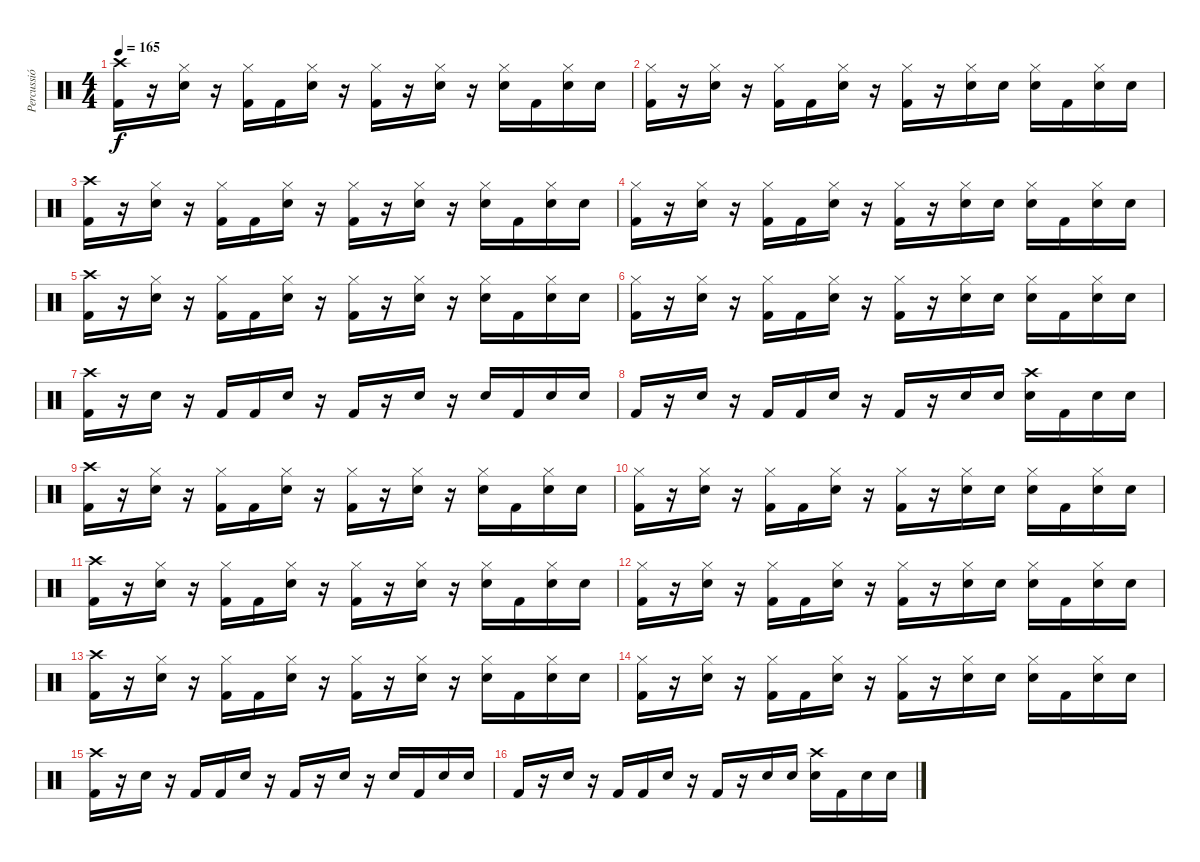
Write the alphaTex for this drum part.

\track ("Percussió" "Percussió") {instrument percussion}
\staff {score}
\articulation defaults
\ts (4 4)
\tempo 165
\clef neutral
\ks c
("Crash high (hit)" "Kick (hit) 2").16{dy f} r.16 ("Hi-Hat (closed)" "Electric Snare (hit)").16 r.16 ("Hi-Hat (closed)" "Kick (hit) 2").16 "Kick (hit) 2".16 ("Hi-Hat (closed)" "Electric Snare (hit)").16 r.16 ("Hi-Hat (closed)" "Kick (hit) 2").16 r.16 ("Hi-Hat (closed)" "Electric Snare (hit)").16 r.16 ("Hi-Hat (closed)" "Electric Snare (hit)").16 "Kick (hit) 2".16 ("Hi-Hat (closed)" "Electric Snare (hit)").16 "Electric Snare (hit)".16 |
("Hi-Hat (closed)" "Kick (hit) 2").16 r.16 ("Hi-Hat (closed)" "Electric Snare (hit)").16 r.16 ("Hi-Hat (closed)" "Kick (hit) 2").16 "Kick (hit) 2".16 ("Hi-Hat (closed)" "Electric Snare (hit)").16 r.16 ("Hi-Hat (closed)" "Kick (hit) 2").16 r.16 ("Hi-Hat (closed)" "Electric Snare (hit)").16 "Electric Snare (hit)".16 ("Hi-Hat (closed)" "Electric Snare (hit)").16 "Kick (hit) 2".16 ("Hi-Hat (closed)" "Electric Snare (hit)").16 "Electric Snare (hit)".16 |
("Crash high (hit)" "Kick (hit) 2").16 r.16 ("Hi-Hat (closed)" "Electric Snare (hit)").16 r.16 ("Hi-Hat (closed)" "Kick (hit) 2").16 "Kick (hit) 2".16 ("Hi-Hat (closed)" "Electric Snare (hit)").16 r.16 ("Hi-Hat (closed)" "Kick (hit) 2").16 r.16 ("Hi-Hat (closed)" "Electric Snare (hit)").16 r.16 ("Hi-Hat (closed)" "Electric Snare (hit)").16 "Kick (hit) 2".16 ("Hi-Hat (closed)" "Electric Snare (hit)").16 "Electric Snare (hit)".16 |
("Hi-Hat (closed)" "Kick (hit) 2").16 r.16 ("Hi-Hat (closed)" "Electric Snare (hit)").16 r.16 ("Hi-Hat (closed)" "Kick (hit) 2").16 "Kick (hit) 2".16 ("Hi-Hat (closed)" "Electric Snare (hit)").16 r.16 ("Hi-Hat (closed)" "Kick (hit) 2").16 r.16 ("Hi-Hat (closed)" "Electric Snare (hit)").16 "Electric Snare (hit)".16 ("Hi-Hat (closed)" "Electric Snare (hit)").16 "Kick (hit) 2".16 ("Hi-Hat (closed)" "Electric Snare (hit)").16 "Electric Snare (hit)".16 |
("Crash high (hit)" "Kick (hit) 2").16 r.16 ("Hi-Hat (closed)" "Electric Snare (hit)").16 r.16 ("Hi-Hat (closed)" "Kick (hit) 2").16 "Kick (hit) 2".16 ("Hi-Hat (closed)" "Electric Snare (hit)").16 r.16 ("Hi-Hat (closed)" "Kick (hit) 2").16 r.16 ("Hi-Hat (closed)" "Electric Snare (hit)").16 r.16 ("Hi-Hat (closed)" "Electric Snare (hit)").16 "Kick (hit) 2".16 ("Hi-Hat (closed)" "Electric Snare (hit)").16 "Electric Snare (hit)".16 |
("Hi-Hat (closed)" "Kick (hit) 2").16 r.16 ("Hi-Hat (closed)" "Electric Snare (hit)").16 r.16 ("Hi-Hat (closed)" "Kick (hit) 2").16 "Kick (hit) 2".16 ("Hi-Hat (closed)" "Electric Snare (hit)").16 r.16 ("Hi-Hat (closed)" "Kick (hit) 2").16 r.16 ("Hi-Hat (closed)" "Electric Snare (hit)").16 "Electric Snare (hit)".16 ("Hi-Hat (closed)" "Electric Snare (hit)").16 "Kick (hit) 2".16 ("Hi-Hat (closed)" "Electric Snare (hit)").16 "Electric Snare (hit)".16 |
("Crash high (hit)" "Kick (hit) 2").16 r.16 "Electric Snare (hit)".16 r.16 "Kick (hit) 2".16 "Kick (hit) 2".16 "Electric Snare (hit)".16 r.16 "Kick (hit) 2".16 r.16 "Electric Snare (hit)".16 r.16 "Electric Snare (hit)".16 "Kick (hit) 2".16 "Electric Snare (hit)".16 "Electric Snare (hit)".16 |
"Kick (hit) 2".16 r.16 "Electric Snare (hit)".16 r.16 "Kick (hit) 2".16 "Kick (hit) 2".16 "Electric Snare (hit)".16 r.16 "Kick (hit) 2".16 r.16 "Electric Snare (hit)".16 "Electric Snare (hit)".16 ("Crash high (hit)" "Electric Snare (hit)").16 "Kick (hit) 2".16 "Electric Snare (hit)".16 "Electric Snare (hit)".16 |
("Crash high (hit)" "Kick (hit) 2").16 r.16 ("Hi-Hat (closed)" "Electric Snare (hit)").16 r.16 ("Hi-Hat (closed)" "Kick (hit) 2").16 "Kick (hit) 2".16 ("Hi-Hat (closed)" "Electric Snare (hit)").16 r.16 ("Hi-Hat (closed)" "Kick (hit) 2").16 r.16 ("Hi-Hat (closed)" "Electric Snare (hit)").16 r.16 ("Hi-Hat (closed)" "Electric Snare (hit)").16 "Kick (hit) 2".16 ("Hi-Hat (closed)" "Electric Snare (hit)").16 "Electric Snare (hit)".16 |
("Hi-Hat (closed)" "Kick (hit) 2").16 r.16 ("Hi-Hat (closed)" "Electric Snare (hit)").16 r.16 ("Hi-Hat (closed)" "Kick (hit) 2").16 "Kick (hit) 2".16 ("Hi-Hat (closed)" "Electric Snare (hit)").16 r.16 ("Hi-Hat (closed)" "Kick (hit) 2").16 r.16 ("Hi-Hat (closed)" "Electric Snare (hit)").16 "Electric Snare (hit)".16 ("Hi-Hat (closed)" "Electric Snare (hit)").16 "Kick (hit) 2".16 ("Hi-Hat (closed)" "Electric Snare (hit)").16 "Electric Snare (hit)".16 |
("Crash high (hit)" "Kick (hit) 2").16 r.16 ("Hi-Hat (closed)" "Electric Snare (hit)").16 r.16 ("Hi-Hat (closed)" "Kick (hit) 2").16 "Kick (hit) 2".16 ("Hi-Hat (closed)" "Electric Snare (hit)").16 r.16 ("Hi-Hat (closed)" "Kick (hit) 2").16 r.16 ("Hi-Hat (closed)" "Electric Snare (hit)").16 r.16 ("Hi-Hat (closed)" "Electric Snare (hit)").16 "Kick (hit) 2".16 ("Hi-Hat (closed)" "Electric Snare (hit)").16 "Electric Snare (hit)".16 |
("Hi-Hat (closed)" "Kick (hit) 2").16 r.16 ("Hi-Hat (closed)" "Electric Snare (hit)").16 r.16 ("Hi-Hat (closed)" "Kick (hit) 2").16 "Kick (hit) 2".16 ("Hi-Hat (closed)" "Electric Snare (hit)").16 r.16 ("Hi-Hat (closed)" "Kick (hit) 2").16 r.16 ("Hi-Hat (closed)" "Electric Snare (hit)").16 "Electric Snare (hit)".16 ("Hi-Hat (closed)" "Electric Snare (hit)").16 "Kick (hit) 2".16 ("Hi-Hat (closed)" "Electric Snare (hit)").16 "Electric Snare (hit)".16 |
("Crash high (hit)" "Kick (hit) 2").16 r.16 ("Hi-Hat (closed)" "Electric Snare (hit)").16 r.16 ("Hi-Hat (closed)" "Kick (hit) 2").16 "Kick (hit) 2".16 ("Hi-Hat (closed)" "Electric Snare (hit)").16 r.16 ("Hi-Hat (closed)" "Kick (hit) 2").16 r.16 ("Hi-Hat (closed)" "Electric Snare (hit)").16 r.16 ("Hi-Hat (closed)" "Electric Snare (hit)").16 "Kick (hit) 2".16 ("Hi-Hat (closed)" "Electric Snare (hit)").16 "Electric Snare (hit)".16 |
("Hi-Hat (closed)" "Kick (hit) 2").16 r.16 ("Hi-Hat (closed)" "Electric Snare (hit)").16 r.16 ("Hi-Hat (closed)" "Kick (hit) 2").16 "Kick (hit) 2".16 ("Hi-Hat (closed)" "Electric Snare (hit)").16 r.16 ("Hi-Hat (closed)" "Kick (hit) 2").16 r.16 ("Hi-Hat (closed)" "Electric Snare (hit)").16 "Electric Snare (hit)".16 ("Hi-Hat (closed)" "Electric Snare (hit)").16 "Kick (hit) 2".16 ("Hi-Hat (closed)" "Electric Snare (hit)").16 "Electric Snare (hit)".16 |
("Crash high (hit)" "Kick (hit) 2").16 r.16 "Electric Snare (hit)".16 r.16 "Kick (hit) 2".16 "Kick (hit) 2".16 "Electric Snare (hit)".16 r.16 "Kick (hit) 2".16 r.16 "Electric Snare (hit)".16 r.16 "Electric Snare (hit)".16 "Kick (hit) 2".16 "Electric Snare (hit)".16 "Electric Snare (hit)".16 |
"Kick (hit) 2".16 r.16 "Electric Snare (hit)".16 r.16 "Kick (hit) 2".16 "Kick (hit) 2".16 "Electric Snare (hit)".16 r.16 "Kick (hit) 2".16 r.16 "Electric Snare (hit)".16 "Electric Snare (hit)".16 ("Crash high (hit)" "Electric Snare (hit)").16 "Kick (hit) 2".16 "Electric Snare (hit)".16 "Electric Snare (hit)".16
